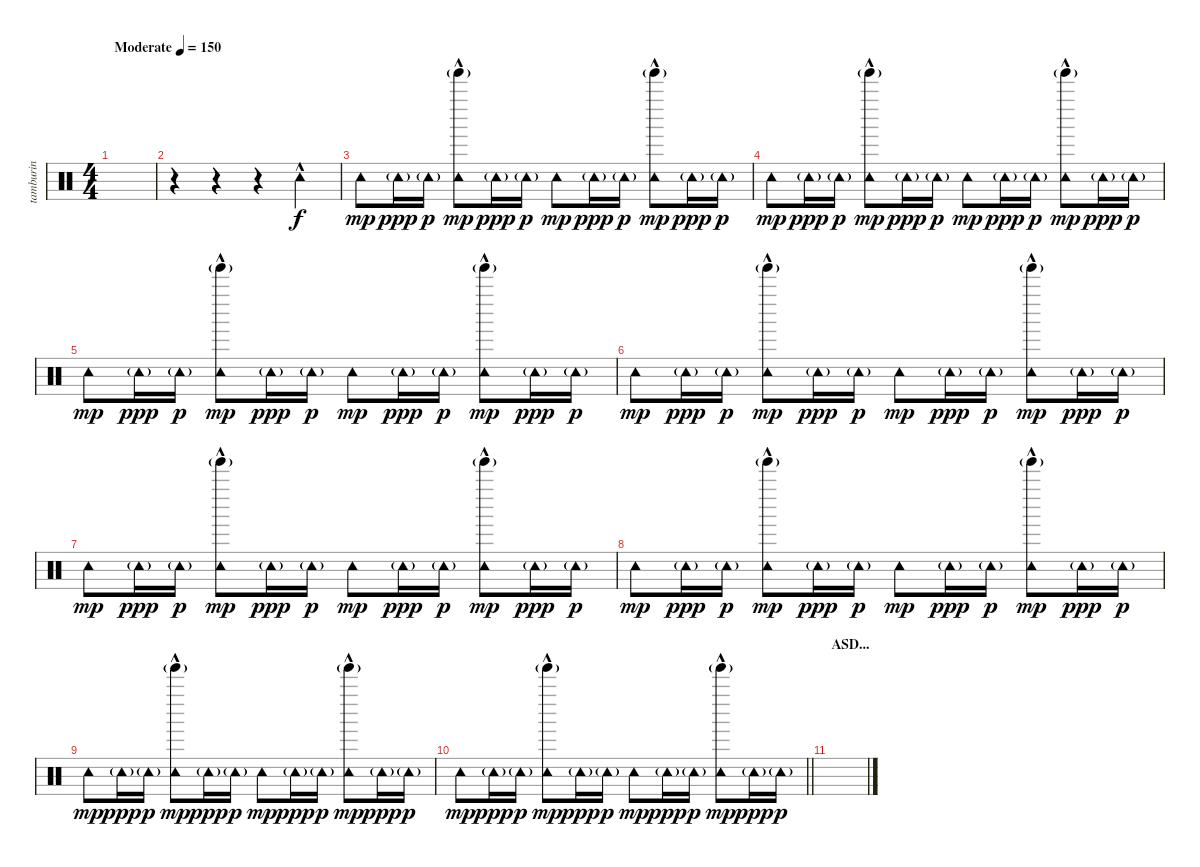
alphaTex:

\track ("tamburin" "tamburin") {instrument percussion}
\staff {score}
\articulation defaults
\ts (4 4)
\tempo (150 "Moderate")
\clef neutral
\ks c
|
r.4 r.4 r.4 "Tambourine (hit)"{hac}.4 |
"Tambourine (hit)".8{dy mp} "Tambourine (hit)"{g}.16{dy ppp} "Tambourine (hit)"{g}.16{dy p} ("Tinkle Bell (hit)"{g} "Tambourine (hit)"{hac}).8{dy mp} "Tambourine (hit)"{g}.16{dy ppp} "Tambourine (hit)"{g}.16{dy p} "Tambourine (hit)".8{dy mp} "Tambourine (hit)"{g}.16{dy ppp} "Tambourine (hit)"{g}.16{dy p} ("Tinkle Bell (hit)"{g} "Tambourine (hit)"{hac}).8{dy mp} "Tambourine (hit)"{g}.16{dy ppp} "Tambourine (hit)"{g}.16{dy p} |
"Tambourine (hit)".8{dy mp} "Tambourine (hit)"{g}.16{dy ppp} "Tambourine (hit)"{g}.16{dy p} ("Tinkle Bell (hit)"{g} "Tambourine (hit)"{hac}).8{dy mp} "Tambourine (hit)"{g}.16{dy ppp} "Tambourine (hit)"{g}.16{dy p} "Tambourine (hit)".8{dy mp} "Tambourine (hit)"{g}.16{dy ppp} "Tambourine (hit)"{g}.16{dy p} ("Tinkle Bell (hit)"{g} "Tambourine (hit)"{hac}).8{dy mp} "Tambourine (hit)"{g}.16{dy ppp} "Tambourine (hit)"{g}.16{dy p} |
"Tambourine (hit)".8{dy mp} "Tambourine (hit)"{g}.16{dy ppp} "Tambourine (hit)"{g}.16{dy p} ("Tinkle Bell (hit)"{g} "Tambourine (hit)"{hac}).8{dy mp} "Tambourine (hit)"{g}.16{dy ppp} "Tambourine (hit)"{g}.16{dy p} "Tambourine (hit)".8{dy mp} "Tambourine (hit)"{g}.16{dy ppp} "Tambourine (hit)"{g}.16{dy p} ("Tinkle Bell (hit)"{g} "Tambourine (hit)"{hac}).8{dy mp} "Tambourine (hit)"{g}.16{dy ppp} "Tambourine (hit)"{g}.16{dy p} |
"Tambourine (hit)".8{dy mp} "Tambourine (hit)"{g}.16{dy ppp} "Tambourine (hit)"{g}.16{dy p} ("Tinkle Bell (hit)"{g} "Tambourine (hit)"{hac}).8{dy mp} "Tambourine (hit)"{g}.16{dy ppp} "Tambourine (hit)"{g}.16{dy p} "Tambourine (hit)".8{dy mp} "Tambourine (hit)"{g}.16{dy ppp} "Tambourine (hit)"{g}.16{dy p} ("Tinkle Bell (hit)"{g} "Tambourine (hit)"{hac}).8{dy mp} "Tambourine (hit)"{g}.16{dy ppp} "Tambourine (hit)"{g}.16{dy p} |
"Tambourine (hit)".8{dy mp} "Tambourine (hit)"{g}.16{dy ppp} "Tambourine (hit)"{g}.16{dy p} ("Tinkle Bell (hit)"{g} "Tambourine (hit)"{hac}).8{dy mp} "Tambourine (hit)"{g}.16{dy ppp} "Tambourine (hit)"{g}.16{dy p} "Tambourine (hit)".8{dy mp} "Tambourine (hit)"{g}.16{dy ppp} "Tambourine (hit)"{g}.16{dy p} ("Tinkle Bell (hit)"{g} "Tambourine (hit)"{hac}).8{dy mp} "Tambourine (hit)"{g}.16{dy ppp} "Tambourine (hit)"{g}.16{dy p} |
"Tambourine (hit)".8{dy mp} "Tambourine (hit)"{g}.16{dy ppp} "Tambourine (hit)"{g}.16{dy p} ("Tinkle Bell (hit)"{g} "Tambourine (hit)"{hac}).8{dy mp} "Tambourine (hit)"{g}.16{dy ppp} "Tambourine (hit)"{g}.16{dy p} "Tambourine (hit)".8{dy mp} "Tambourine (hit)"{g}.16{dy ppp} "Tambourine (hit)"{g}.16{dy p} ("Tinkle Bell (hit)"{g} "Tambourine (hit)"{hac}).8{dy mp} "Tambourine (hit)"{g}.16{dy ppp} "Tambourine (hit)"{g}.16{dy p} |
"Tambourine (hit)".8{dy mp} "Tambourine (hit)"{g}.16{dy ppp} "Tambourine (hit)"{g}.16{dy p} ("Tinkle Bell (hit)"{g} "Tambourine (hit)"{hac}).8{dy mp} "Tambourine (hit)"{g}.16{dy ppp} "Tambourine (hit)"{g}.16{dy p} "Tambourine (hit)".8{dy mp} "Tambourine (hit)"{g}.16{dy ppp} "Tambourine (hit)"{g}.16{dy p} ("Tinkle Bell (hit)"{g} "Tambourine (hit)"{hac}).8{dy mp} "Tambourine (hit)"{g}.16{dy ppp} "Tambourine (hit)"{g}.16{dy p} |
\barLineRight lightlight "Tambourine (hit)".8{dy mp} "Tambourine (hit)"{g}.16{dy ppp} "Tambourine (hit)"{g}.16{dy p}
("Tinkle Bell (hit)"{g} "Tambourine (hit)"{hac}).8{dy mp} "Tambourine (hit)"{g}.16{dy ppp} "Tambourine (hit)"{g}.16{dy p} "Tambourine (hit)".8{dy mp} "Tambourine (hit)"{g}.16{dy ppp} "Tambourine (hit)"{g}.16{dy p} ("Tinkle Bell (hit)"{g} "Tambourine (hit)"{hac}).8{dy mp} "Tambourine (hit)"{g}.16{dy ppp} "Tambourine (hit)"{g}.16{dy p} |
\section ("" "ASD...")
